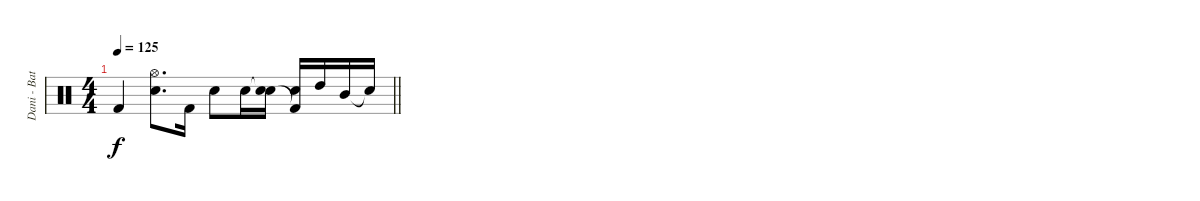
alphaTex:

\track ("Dani - Batería" "Dani - Bat") {instrument percussion}
\staff {score}
\articulation defaults
\ts (4 4)
\tempo 125
\clef neutral
\barLineRight lightlight
\ks c "Kick (hit) 2".4{dy f}
("Hi-Hat (open)" "Electric Snare (hit)").8{d} "Kick (hit) 2".16 "Electric Snare (hit)".8 "Electric Snare (hit)".16 ("Snare (hit)"{t} "Electric Snare (hit)").16 ("Electric Snare (hit)" "Kick (hit) 2"{t}).16 "High Tom (hit)".16 "Mid Tom (hit)".16 "Snare (hit)"{t}.16
